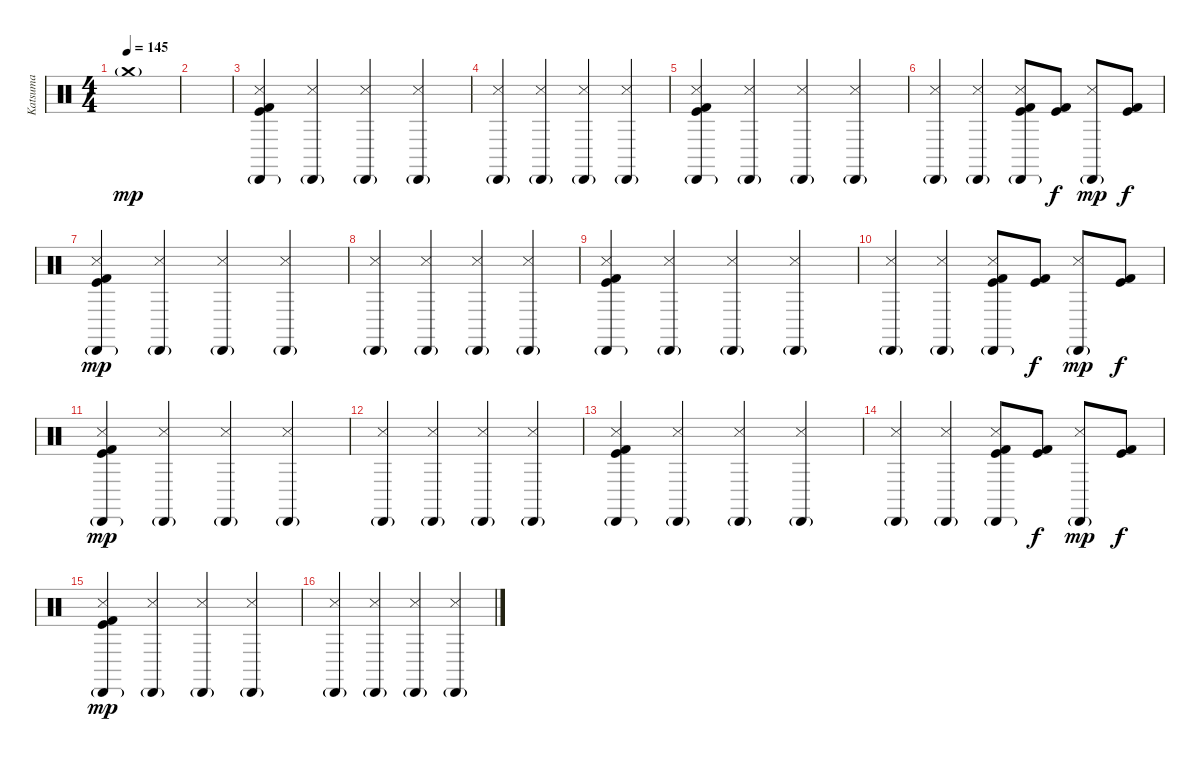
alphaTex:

\track ("Katsuma " "Katsuma ") {instrument percussion}
\staff {score}
\articulation defaults
\ts (4 4)
\tempo 145
\clef neutral
\ks c "Crash medium (hit)"{g}.1{dy mp}
|
|
("Snare (side stick) 3" "Cabasa (hit)"{g} "Kick (hit) 2" "Kick (hit)").4 ("Snare (side stick) 3" "Cabasa (hit)"{g}).4 ("Snare (side stick) 3" "Cabasa (hit)"{g}).4 ("Snare (side stick) 3" "Cabasa (hit)"{g}).4 |
("Snare (side stick) 3" "Cabasa (hit)"{g}).4 ("Snare (side stick) 3" "Cabasa (hit)"{g}).4 ("Snare (side stick) 3" "Cabasa (hit)"{g}).4 ("Snare (side stick) 3" "Cabasa (hit)"{g}).4 |
("Snare (side stick) 3" "Cabasa (hit)"{g} "Kick (hit)" "Kick (hit) 2").4 ("Snare (side stick) 3" "Cabasa (hit)"{g}).4 ("Snare (side stick) 3" "Cabasa (hit)"{g}).4 ("Snare (side stick) 3" "Cabasa (hit)"{g}).4 |
("Snare (side stick) 3" "Cabasa (hit)"{g}).4 ("Snare (side stick) 3" "Cabasa (hit)"{g}).4 ("Snare (side stick) 3" "Cabasa (hit)"{g} "Kick (hit)" "Kick (hit) 2").8 ("Kick (hit)" "Kick (hit) 2").8{dy f} ("Snare (side stick) 3" "Cabasa (hit)"{g}).8{dy mp} ("Kick (hit)" "Kick (hit) 2").8{dy f} |
("Snare (side stick) 3" "Cabasa (hit)"{g} "Kick (hit) 2" "Kick (hit)").4{dy mp} ("Snare (side stick) 3" "Cabasa (hit)"{g}).4 ("Snare (side stick) 3" "Cabasa (hit)"{g}).4 ("Snare (side stick) 3" "Cabasa (hit)"{g}).4 |
("Snare (side stick) 3" "Cabasa (hit)"{g}).4 ("Snare (side stick) 3" "Cabasa (hit)"{g}).4 ("Snare (side stick) 3" "Cabasa (hit)"{g}).4 ("Snare (side stick) 3" "Cabasa (hit)"{g}).4 |
("Snare (side stick) 3" "Cabasa (hit)"{g} "Kick (hit) 2" "Kick (hit)").4 ("Snare (side stick) 3" "Cabasa (hit)"{g}).4 ("Snare (side stick) 3" "Cabasa (hit)"{g}).4 ("Snare (side stick) 3" "Cabasa (hit)"{g}).4 |
("Snare (side stick) 3" "Cabasa (hit)"{g}).4 ("Snare (side stick) 3" "Cabasa (hit)"{g}).4 ("Snare (side stick) 3" "Cabasa (hit)"{g} "Kick (hit)" "Kick (hit) 2").8 ("Kick (hit)" "Kick (hit) 2").8{dy f} ("Snare (side stick) 3" "Cabasa (hit)"{g}).8{dy mp} ("Kick (hit)" "Kick (hit) 2").8{dy f} |
("Snare (side stick) 3" "Cabasa (hit)"{g} "Kick (hit) 2" "Kick (hit)").4{dy mp} ("Snare (side stick) 3" "Cabasa (hit)"{g}).4 ("Snare (side stick) 3" "Cabasa (hit)"{g}).4 ("Snare (side stick) 3" "Cabasa (hit)"{g}).4 |
("Snare (side stick) 3" "Cabasa (hit)"{g}).4 ("Snare (side stick) 3" "Cabasa (hit)"{g}).4 ("Snare (side stick) 3" "Cabasa (hit)"{g}).4 ("Snare (side stick) 3" "Cabasa (hit)"{g}).4 |
("Snare (side stick) 3" "Cabasa (hit)"{g} "Kick (hit)" "Kick (hit) 2").4 ("Snare (side stick) 3" "Cabasa (hit)"{g}).4 ("Snare (side stick) 3" "Cabasa (hit)"{g}).4 ("Snare (side stick) 3" "Cabasa (hit)"{g}).4 |
("Snare (side stick) 3" "Cabasa (hit)"{g}).4 ("Snare (side stick) 3" "Cabasa (hit)"{g}).4 ("Snare (side stick) 3" "Cabasa (hit)"{g} "Kick (hit)" "Kick (hit) 2").8 ("Kick (hit)" "Kick (hit) 2").8{dy f} ("Snare (side stick) 3" "Cabasa (hit)"{g}).8{dy mp} ("Kick (hit)" "Kick (hit) 2").8{dy f} |
("Snare (side stick) 3" "Cabasa (hit)"{g} "Kick (hit) 2" "Kick (hit)").4{dy mp} ("Snare (side stick) 3" "Cabasa (hit)"{g}).4 ("Snare (side stick) 3" "Cabasa (hit)"{g}).4 ("Snare (side stick) 3" "Cabasa (hit)"{g}).4 |
("Snare (side stick) 3" "Cabasa (hit)"{g}).4 ("Snare (side stick) 3" "Cabasa (hit)"{g}).4 ("Snare (side stick) 3" "Cabasa (hit)"{g}).4 ("Snare (side stick) 3" "Cabasa (hit)"{g}).4
